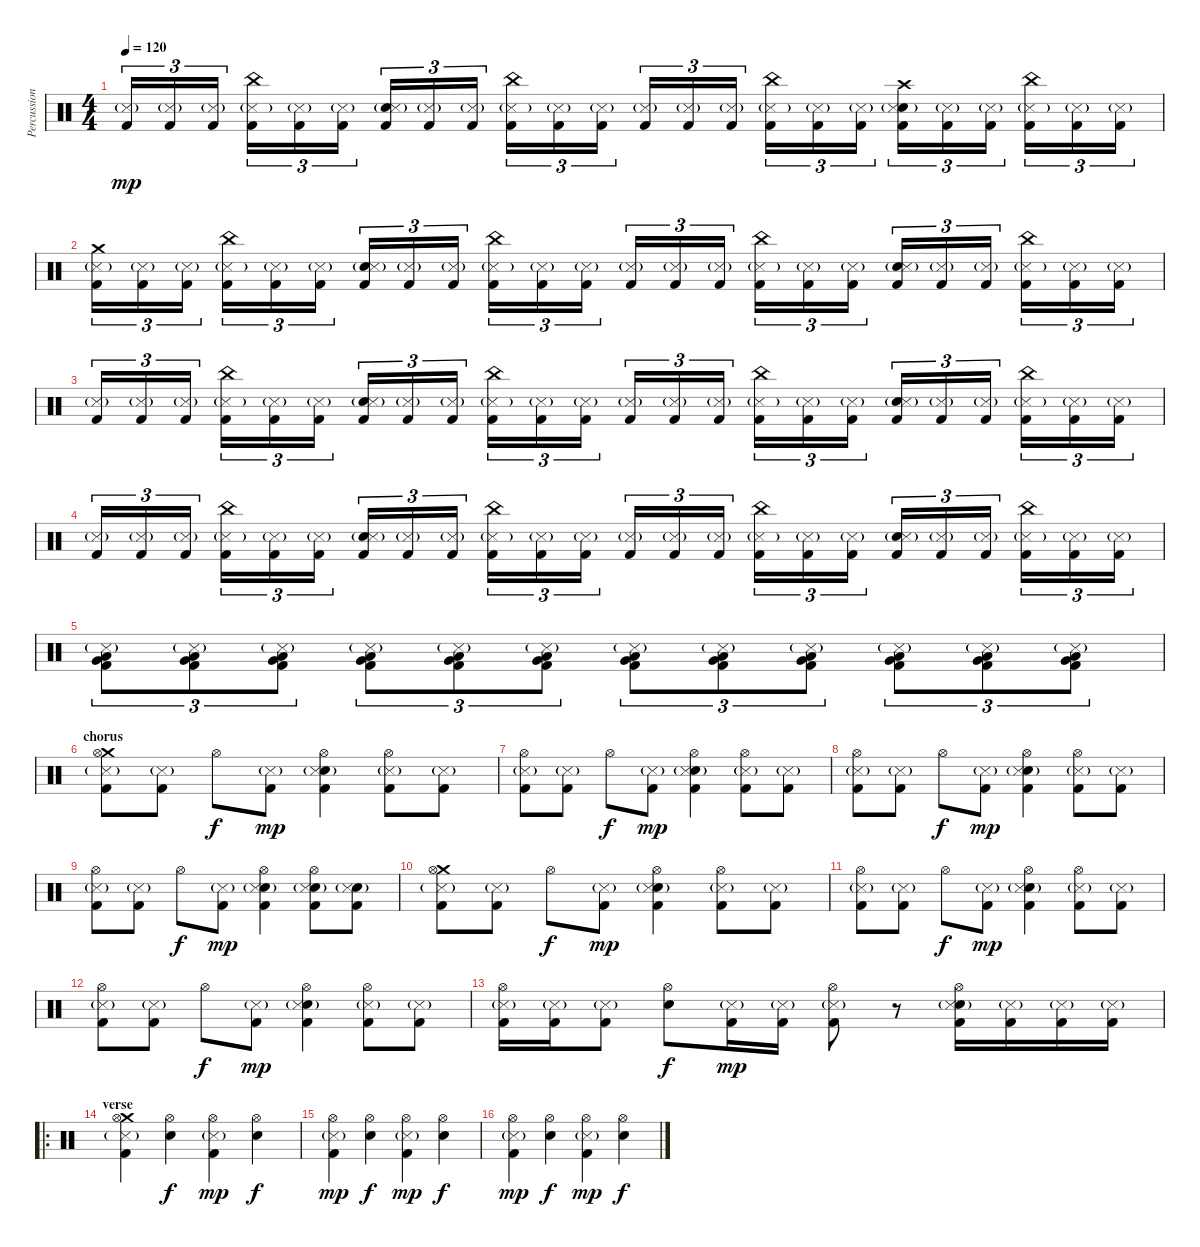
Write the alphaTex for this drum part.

\track ("Percussion" "Percussion") {instrument percussion}
\staff {score}
\articulation defaults
\ts (4 4)
\tempo 120
\clef neutral
\ks c
("Snare (side stick) 3"{g} "Kick (hit) 2").16{tu (3 2) dy mp} ("Snare (side stick) 3"{g} "Kick (hit) 2").16{tu (3 2)} ("Snare (side stick) 3"{g} "Kick (hit) 2").16{tu (3 2)} ("China (hit)" "Snare (side stick) 3"{g} "Kick (hit) 2").16{tu (3 2)} ("Snare (side stick) 3"{g} "Kick (hit) 2").16{tu (3 2)} ("Snare (side stick) 3"{g} "Kick (hit) 2").16{tu (3 2)} ("Electric Snare (hit)" "Snare (side stick) 3"{g} "Kick (hit) 2").16{tu (3 2)} ("Snare (side stick) 3"{g} "Kick (hit) 2").16{tu (3 2)} ("Snare (side stick) 3"{g} "Kick (hit) 2").16{tu (3 2)} ("China (hit)" "Snare (side stick) 3"{g} "Kick (hit) 2").16{tu (3 2)} ("Snare (side stick) 3"{g} "Kick (hit) 2").16{tu (3 2)} ("Snare (side stick) 3"{g} "Kick (hit) 2").16{tu (3 2)} ("Snare (side stick) 3"{g} "Kick (hit) 2").16{tu (3 2)} ("Snare (side stick) 3"{g} "Kick (hit) 2").16{tu (3 2)} ("Snare (side stick) 3"{g} "Kick (hit) 2").16{tu (3 2)} ("China (hit)" "Snare (side stick) 3"{g} "Kick (hit) 2").16{tu (3 2)} ("Snare (side stick) 3"{g} "Kick (hit) 2").16{tu (3 2)} ("Snare (side stick) 3"{g} "Kick (hit) 2").16{tu (3 2)} ("Crash high (hit)" "Electric Snare (hit)" "Snare (side stick) 3"{g} "Kick (hit) 2").16{tu (3 2)} ("Snare (side stick) 3"{g} "Kick (hit) 2").16{tu (3 2)} ("Snare (side stick) 3"{g} "Kick (hit) 2").16{tu (3 2)} ("China (hit)" "Snare (side stick) 3"{g} "Kick (hit) 2").16{tu (3 2)} ("Snare (side stick) 3"{g} "Kick (hit) 2").16{tu (3 2)} ("Snare (side stick) 3"{g} "Kick (hit) 2").16{tu (3 2)} |
("Crash medium (hit)" "Snare (side stick) 3"{g} "Kick (hit) 2").16{tu (3 2)} ("Snare (side stick) 3"{g} "Kick (hit) 2").16{tu (3 2)} ("Snare (side stick) 3"{g} "Kick (hit) 2").16{tu (3 2)} ("China (hit)" "Snare (side stick) 3"{g} "Kick (hit) 2").16{tu (3 2)} ("Snare (side stick) 3"{g} "Kick (hit) 2").16{tu (3 2)} ("Snare (side stick) 3"{g} "Kick (hit) 2").16{tu (3 2)} ("Electric Snare (hit)" "Snare (side stick) 3"{g} "Kick (hit) 2").16{tu (3 2)} ("Snare (side stick) 3"{g} "Kick (hit) 2").16{tu (3 2)} ("Snare (side stick) 3"{g} "Kick (hit) 2").16{tu (3 2)} ("China (hit)" "Snare (side stick) 3"{g} "Kick (hit) 2").16{tu (3 2)} ("Snare (side stick) 3"{g} "Kick (hit) 2").16{tu (3 2)} ("Snare (side stick) 3"{g} "Kick (hit) 2").16{tu (3 2)} ("Snare (side stick) 3"{g} "Kick (hit) 2").16{tu (3 2)} ("Snare (side stick) 3"{g} "Kick (hit) 2").16{tu (3 2)} ("Snare (side stick) 3"{g} "Kick (hit) 2").16{tu (3 2)} ("China (hit)" "Snare (side stick) 3"{g} "Kick (hit) 2").16{tu (3 2)} ("Snare (side stick) 3"{g} "Kick (hit) 2").16{tu (3 2)} ("Snare (side stick) 3"{g} "Kick (hit) 2").16{tu (3 2)} ("Electric Snare (hit)" "Snare (side stick) 3"{g} "Kick (hit) 2").16{tu (3 2)} ("Snare (side stick) 3"{g} "Kick (hit) 2").16{tu (3 2)} ("Snare (side stick) 3"{g} "Kick (hit) 2").16{tu (3 2)} ("China (hit)" "Snare (side stick) 3"{g} "Kick (hit) 2").16{tu (3 2)} ("Snare (side stick) 3"{g} "Kick (hit) 2").16{tu (3 2)} ("Snare (side stick) 3"{g} "Kick (hit) 2").16{tu (3 2)} |
("Snare (side stick) 3"{g} "Kick (hit) 2").16{tu (3 2)} ("Snare (side stick) 3"{g} "Kick (hit) 2").16{tu (3 2)} ("Snare (side stick) 3"{g} "Kick (hit) 2").16{tu (3 2)} ("China (hit)" "Snare (side stick) 3"{g} "Kick (hit) 2").16{tu (3 2)} ("Snare (side stick) 3"{g} "Kick (hit) 2").16{tu (3 2)} ("Snare (side stick) 3"{g} "Kick (hit) 2").16{tu (3 2)} ("Electric Snare (hit)" "Snare (side stick) 3"{g} "Kick (hit) 2").16{tu (3 2)} ("Snare (side stick) 3"{g} "Kick (hit) 2").16{tu (3 2)} ("Snare (side stick) 3"{g} "Kick (hit) 2").16{tu (3 2)} ("China (hit)" "Snare (side stick) 3"{g} "Kick (hit) 2").16{tu (3 2)} ("Snare (side stick) 3"{g} "Kick (hit) 2").16{tu (3 2)} ("Snare (side stick) 3"{g} "Kick (hit) 2").16{tu (3 2)} ("Snare (side stick) 3"{g} "Kick (hit) 2").16{tu (3 2)} ("Snare (side stick) 3"{g} "Kick (hit) 2").16{tu (3 2)} ("Snare (side stick) 3"{g} "Kick (hit) 2").16{tu (3 2)} ("China (hit)" "Snare (side stick) 3"{g} "Kick (hit) 2").16{tu (3 2)} ("Snare (side stick) 3"{g} "Kick (hit) 2").16{tu (3 2)} ("Snare (side stick) 3"{g} "Kick (hit) 2").16{tu (3 2)} ("Electric Snare (hit)" "Snare (side stick) 3"{g} "Kick (hit) 2").16{tu (3 2)} ("Snare (side stick) 3"{g} "Kick (hit) 2").16{tu (3 2)} ("Snare (side stick) 3"{g} "Kick (hit) 2").16{tu (3 2)} ("China (hit)" "Snare (side stick) 3"{g} "Kick (hit) 2").16{tu (3 2)} ("Snare (side stick) 3"{g} "Kick (hit) 2").16{tu (3 2)} ("Snare (side stick) 3"{g} "Kick (hit) 2").16{tu (3 2)} |
("Snare (side stick) 3"{g} "Kick (hit) 2").16{tu (3 2)} ("Snare (side stick) 3"{g} "Kick (hit) 2").16{tu (3 2)} ("Snare (side stick) 3"{g} "Kick (hit) 2").16{tu (3 2)} ("China (hit)" "Snare (side stick) 3"{g} "Kick (hit) 2").16{tu (3 2)} ("Snare (side stick) 3"{g} "Kick (hit) 2").16{tu (3 2)} ("Snare (side stick) 3"{g} "Kick (hit) 2").16{tu (3 2)} ("Electric Snare (hit)" "Snare (side stick) 3"{g} "Kick (hit) 2").16{tu (3 2)} ("Snare (side stick) 3"{g} "Kick (hit) 2").16{tu (3 2)} ("Snare (side stick) 3"{g} "Kick (hit) 2").16{tu (3 2)} ("China (hit)" "Snare (side stick) 3"{g} "Kick (hit) 2").16{tu (3 2)} ("Snare (side stick) 3"{g} "Kick (hit) 2").16{tu (3 2)} ("Snare (side stick) 3"{g} "Kick (hit) 2").16{tu (3 2)} ("Snare (side stick) 3"{g} "Kick (hit) 2").16{tu (3 2)} ("Snare (side stick) 3"{g} "Kick (hit) 2").16{tu (3 2)} ("Snare (side stick) 3"{g} "Kick (hit) 2").16{tu (3 2)} ("China (hit)" "Snare (side stick) 3"{g} "Kick (hit) 2").16{tu (3 2)} ("Snare (side stick) 3"{g} "Kick (hit) 2").16{tu (3 2)} ("Snare (side stick) 3"{g} "Kick (hit) 2").16{tu (3 2)} ("Electric Snare (hit)" "Snare (side stick) 3"{g} "Kick (hit) 2").16{tu (3 2)} ("Snare (side stick) 3"{g} "Kick (hit) 2").16{tu (3 2)} ("Snare (side stick) 3"{g} "Kick (hit) 2").16{tu (3 2)} ("China (hit)" "Snare (side stick) 3"{g} "Kick (hit) 2").16{tu (3 2)} ("Snare (side stick) 3"{g} "Kick (hit) 2").16{tu (3 2)} ("Snare (side stick) 3"{g} "Kick (hit) 2").16{tu (3 2)} |
("Very Low Tom (hit)" "Low Floor Tom (hit)" "Snare (side stick) 3"{g} "Kick (hit) 2").8{tu (3 2)} ("Very Low Tom (hit)" "Low Floor Tom (hit)" "Snare (side stick) 3"{g} "Kick (hit) 2").8{tu (3 2)} ("Very Low Tom (hit)" "Low Floor Tom (hit)" "Snare (side stick) 3"{g} "Kick (hit) 2").8{tu (3 2)} ("Very Low Tom (hit)" "Low Floor Tom (hit)" "Snare (side stick) 3"{g} "Kick (hit) 2").8{tu (3 2)} ("Very Low Tom (hit)" "Low Floor Tom (hit)" "Snare (side stick) 3"{g} "Kick (hit) 2").8{tu (3 2)} ("Very Low Tom (hit)" "Low Floor Tom (hit)" "Snare (side stick) 3"{g} "Kick (hit) 2").8{tu (3 2)} ("Very Low Tom (hit)" "Low Floor Tom (hit)" "Snare (side stick) 3"{g} "Kick (hit) 2").8{tu (3 2)} ("Very Low Tom (hit)" "Low Floor Tom (hit)" "Snare (side stick) 3"{g} "Kick (hit) 2").8{tu (3 2)} ("Very Low Tom (hit)" "Low Floor Tom (hit)" "Snare (side stick) 3"{g} "Kick (hit) 2").8{tu (3 2)} ("Very Low Tom (hit)" "Low Floor Tom (hit)" "Snare (side stick) 3"{g} "Kick (hit) 2").8{tu (3 2)} ("Very Low Tom (hit)" "Low Floor Tom (hit)" "Snare (side stick) 3"{g} "Kick (hit) 2").8{tu (3 2)} ("Very Low Tom (hit)" "Low Floor Tom (hit)" "Snare (side stick) 3"{g} "Kick (hit) 2").8{tu (3 2)} |
\section ("" "chorus")
("Crash medium (hit)" "Hi-Hat (open)" "Snare (side stick) 3"{g} "Kick (hit) 2").8 ("Snare (side stick) 3"{g} "Kick (hit) 2").8 "Hi-Hat (open)".8{dy f} ("Snare (side stick) 3"{g} "Kick (hit) 2").8{dy mp} ("Hi-Hat (open)" "Electric Snare (hit)" "Snare (side stick) 3"{g} "Kick (hit) 2").4 ("Hi-Hat (open)" "Snare (side stick) 3"{g} "Kick (hit) 2").8 ("Snare (side stick) 3"{g} "Kick (hit) 2").8 |
("Hi-Hat (open)" "Snare (side stick) 3"{g} "Kick (hit) 2").8 ("Snare (side stick) 3"{g} "Kick (hit) 2").8 "Hi-Hat (open)".8{dy f} ("Snare (side stick) 3"{g} "Kick (hit) 2").8{dy mp} ("Hi-Hat (open)" "Electric Snare (hit)" "Snare (side stick) 3"{g} "Kick (hit) 2").4 ("Hi-Hat (open)" "Snare (side stick) 3"{g} "Kick (hit) 2").8 ("Snare (side stick) 3"{g} "Kick (hit) 2").8 |
("Hi-Hat (open)" "Snare (side stick) 3"{g} "Kick (hit) 2").8 ("Snare (side stick) 3"{g} "Kick (hit) 2").8 "Hi-Hat (open)".8{dy f} ("Snare (side stick) 3"{g} "Kick (hit) 2").8{dy mp} ("Hi-Hat (open)" "Electric Snare (hit)" "Snare (side stick) 3"{g} "Kick (hit) 2").4 ("Hi-Hat (open)" "Snare (side stick) 3"{g} "Kick (hit) 2").8 ("Snare (side stick) 3"{g} "Kick (hit) 2").8 |
("Hi-Hat (open)" "Snare (side stick) 3"{g} "Kick (hit) 2").8 ("Snare (side stick) 3"{g} "Kick (hit) 2").8 "Hi-Hat (open)".8{dy f} ("Snare (side stick) 3"{g} "Kick (hit) 2").8{dy mp} ("Hi-Hat (open)" "Electric Snare (hit)" "Snare (side stick) 3"{g} "Kick (hit) 2").4 ("Hi-Hat (open)" "Electric Snare (hit)" "Snare (side stick) 3"{g} "Kick (hit) 2").8 ("Electric Snare (hit)" "Snare (side stick) 3"{g} "Kick (hit) 2").8 |
("Crash medium (hit)" "Hi-Hat (open)" "Snare (side stick) 3"{g} "Kick (hit) 2").8 ("Snare (side stick) 3"{g} "Kick (hit) 2").8 "Hi-Hat (open)".8{dy f} ("Snare (side stick) 3"{g} "Kick (hit) 2").8{dy mp} ("Hi-Hat (open)" "Electric Snare (hit)" "Snare (side stick) 3"{g} "Kick (hit) 2").4 ("Hi-Hat (open)" "Snare (side stick) 3"{g} "Kick (hit) 2").8 ("Snare (side stick) 3"{g} "Kick (hit) 2").8 |
("Hi-Hat (open)" "Snare (side stick) 3"{g} "Kick (hit) 2").8 ("Snare (side stick) 3"{g} "Kick (hit) 2").8 "Hi-Hat (open)".8{dy f} ("Snare (side stick) 3"{g} "Kick (hit) 2").8{dy mp} ("Hi-Hat (open)" "Electric Snare (hit)" "Snare (side stick) 3"{g} "Kick (hit) 2").4 ("Hi-Hat (open)" "Snare (side stick) 3"{g} "Kick (hit) 2").8 ("Snare (side stick) 3"{g} "Kick (hit) 2").8 |
("Hi-Hat (open)" "Snare (side stick) 3"{g} "Kick (hit) 2").8 ("Snare (side stick) 3"{g} "Kick (hit) 2").8 "Hi-Hat (open)".8{dy f} ("Snare (side stick) 3"{g} "Kick (hit) 2").8{dy mp} ("Hi-Hat (open)" "Electric Snare (hit)" "Snare (side stick) 3"{g} "Kick (hit) 2").4 ("Hi-Hat (open)" "Snare (side stick) 3"{g} "Kick (hit) 2").8 ("Snare (side stick) 3"{g} "Kick (hit) 2").8 |
("Hi-Hat (open)" "Snare (side stick) 3"{g} "Kick (hit) 2").16 ("Snare (side stick) 3"{g} "Kick (hit) 2").16 ("Snare (side stick) 3"{g} "Kick (hit) 2").8 ("Hi-Hat (open)" "Electric Snare (hit)").8{dy f} ("Snare (side stick) 3"{g} "Kick (hit) 2").16{dy mp} ("Snare (side stick) 3"{g} "Kick (hit) 2").16 ("Hi-Hat (open)" "Snare (side stick) 3"{g} "Kick (hit) 2").8 r.8 ("Hi-Hat (open)" "Electric Snare (hit)" "Snare (side stick) 3"{g} "Kick (hit) 2").16 ("Snare (side stick) 3"{g} "Kick (hit) 2").16 ("Snare (side stick) 3"{g} "Kick (hit) 2").16 ("Snare (side stick) 3"{g} "Kick (hit) 2").16 |
\ro
\section ("" "verse")
("Crash medium (hit)" "Hi-Hat (open)" "Snare (side stick) 3"{g} "Kick (hit) 2").4 ("Hi-Hat (open)" "Electric Snare (hit)").4{dy f} ("Hi-Hat (open)" "Snare (side stick) 3"{g} "Kick (hit) 2").4{dy mp} ("Hi-Hat (open)" "Electric Snare (hit)").4{dy f} |
("Hi-Hat (open)" "Snare (side stick) 3"{g} "Kick (hit) 2").4{dy mp} ("Hi-Hat (open)" "Electric Snare (hit)").4{dy f} ("Hi-Hat (open)" "Snare (side stick) 3"{g} "Kick (hit) 2").4{dy mp} ("Hi-Hat (open)" "Electric Snare (hit)").4{dy f} |
("Hi-Hat (open)" "Snare (side stick) 3"{g} "Kick (hit) 2").4{dy mp} ("Hi-Hat (open)" "Electric Snare (hit)").4{dy f} ("Hi-Hat (open)" "Snare (side stick) 3"{g} "Kick (hit) 2").4{dy mp} ("Hi-Hat (open)" "Electric Snare (hit)").4{dy f}
